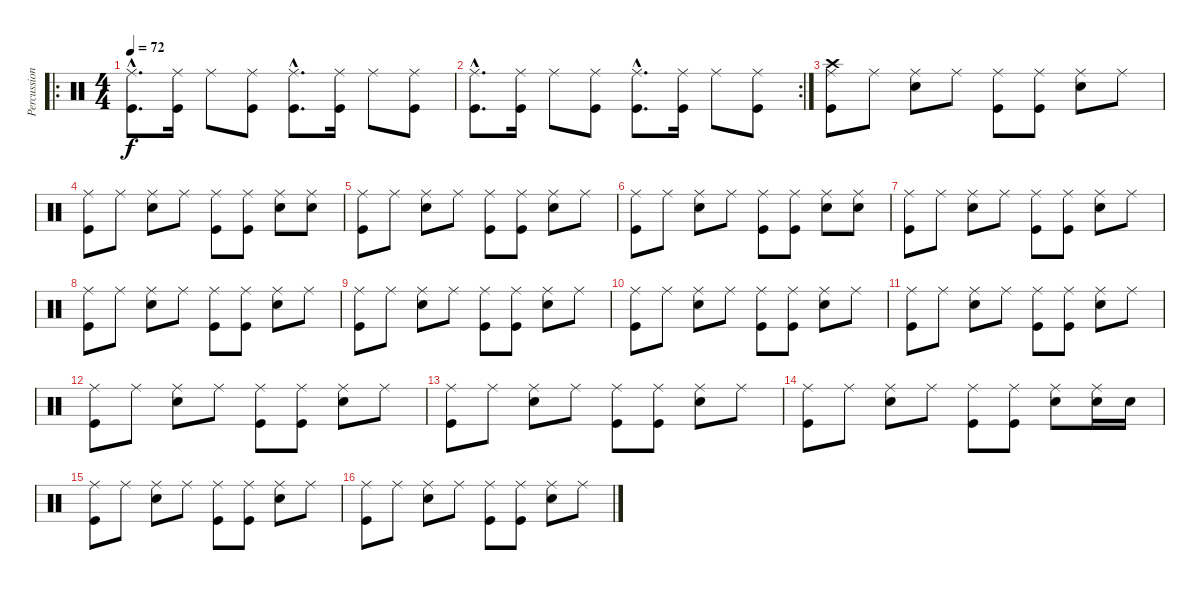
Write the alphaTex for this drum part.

\track ("Percussions" "Percussion") {instrument percussion}
\staff {score}
\articulation defaults
\ro
\ts (4 4)
\tempo 72
\clef neutral
\ks c
("Ride (middle)"{hac} "Kick (hit)"{hac}).8{d dy f} ("Ride (middle)" "Kick (hit)").16 "Ride (middle)".8 ("Ride (middle)" "Kick (hit)").8 ("Ride (middle)"{hac} "Kick (hit)"{hac}).8{d} ("Ride (middle)" "Kick (hit)").16 "Ride (middle)".8 ("Ride (middle)" "Kick (hit)").8 |
\rc 2
("Ride (middle)"{hac} "Kick (hit)"{hac}).8{d} ("Ride (middle)" "Kick (hit)").16 "Ride (middle)".8 ("Ride (middle)" "Kick (hit)").8 ("Ride (middle)"{hac} "Kick (hit)"{hac}).8{d} ("Ride (middle)" "Kick (hit)").16 "Ride (middle)".8 ("Ride (middle)" "Kick (hit)").8 |
("Crash high (hit)" "Ride (middle)" "Kick (hit)").8 "Ride (middle)".8 ("Ride (middle)" "Snare (hit) 2").8 "Ride (middle)".8 ("Ride (middle)" "Kick (hit)").8 ("Ride (middle)" "Kick (hit)").8 ("Ride (middle)" "Snare (hit) 2").8 "Ride (middle)".8 |
("Ride (middle)" "Kick (hit)").8 "Ride (middle)".8 ("Ride (middle)" "Snare (hit) 2").8 "Ride (middle)".8 ("Ride (middle)" "Kick (hit)").8 ("Ride (middle)" "Kick (hit)").8 ("Ride (middle)" "Snare (hit) 2").8 ("Ride (middle)" "Snare (hit) 2").8 |
("Ride (middle)" "Kick (hit)").8 "Ride (middle)".8 ("Ride (middle)" "Snare (hit) 2").8 "Ride (middle)".8 ("Ride (middle)" "Kick (hit)").8 ("Ride (middle)" "Kick (hit)").8 ("Ride (middle)" "Snare (hit) 2").8 "Ride (middle)".8 |
("Ride (middle)" "Kick (hit)").8 "Ride (middle)".8 ("Ride (middle)" "Snare (hit) 2").8 "Ride (middle)".8 ("Ride (middle)" "Kick (hit)").8 ("Ride (middle)" "Kick (hit)").8 ("Ride (middle)" "Snare (hit) 2").8 ("Ride (middle)" "Snare (hit) 2").8 |
("Ride (middle)" "Kick (hit)").8 "Ride (middle)".8 ("Ride (middle)" "Snare (hit) 2").8 "Ride (middle)".8 ("Ride (middle)" "Kick (hit)").8 ("Ride (middle)" "Kick (hit)").8 ("Ride (middle)" "Snare (hit) 2").8 "Ride (middle)".8 |
("Ride (middle)" "Kick (hit)").8 "Ride (middle)".8 ("Ride (middle)" "Snare (hit) 2").8 "Ride (middle)".8 ("Ride (middle)" "Kick (hit)").8 ("Ride (middle)" "Kick (hit)").8 ("Ride (middle)" "Snare (hit) 2").8 "Ride (middle)".8 |
("Ride (middle)" "Kick (hit)").8 "Ride (middle)".8 ("Ride (middle)" "Snare (hit) 2").8 "Ride (middle)".8 ("Ride (middle)" "Kick (hit)").8 ("Ride (middle)" "Kick (hit)").8 ("Ride (middle)" "Snare (hit) 2").8 "Ride (middle)".8 |
("Ride (middle)" "Kick (hit)").8 "Ride (middle)".8 ("Ride (middle)" "Snare (hit) 2").8 "Ride (middle)".8 ("Ride (middle)" "Kick (hit)").8 ("Ride (middle)" "Kick (hit)").8 ("Ride (middle)" "Snare (hit) 2").8 "Ride (middle)".8 |
("Ride (middle)" "Kick (hit)").8 "Ride (middle)".8 ("Ride (middle)" "Snare (hit) 2").8 "Ride (middle)".8 ("Ride (middle)" "Kick (hit)").8 ("Ride (middle)" "Kick (hit)").8 ("Ride (middle)" "Snare (hit) 2").8 "Ride (middle)".8 |
("Ride (middle)" "Kick (hit)").8 "Ride (middle)".8 ("Ride (middle)" "Snare (hit) 2").8 "Ride (middle)".8 ("Ride (middle)" "Kick (hit)").8 ("Ride (middle)" "Kick (hit)").8 ("Ride (middle)" "Snare (hit) 2").8 "Ride (middle)".8 |
("Ride (middle)" "Kick (hit)").8 "Ride (middle)".8 ("Ride (middle)" "Snare (hit) 2").8 "Ride (middle)".8 ("Ride (middle)" "Kick (hit)").8 ("Ride (middle)" "Kick (hit)").8 ("Ride (middle)" "Snare (hit) 2").8 "Ride (middle)".8 |
("Ride (middle)" "Kick (hit)").8 "Ride (middle)".8 ("Ride (middle)" "Snare (hit) 2").8 "Ride (middle)".8 ("Ride (middle)" "Kick (hit)").8 ("Ride (middle)" "Kick (hit)").8 ("Ride (middle)" "Snare (hit) 2").8 ("Ride (middle)" "Snare (hit) 2").16 "Snare (hit) 2".16 |
("Ride (middle)" "Kick (hit)").8 "Ride (middle)".8 ("Ride (middle)" "Snare (hit) 2").8 "Ride (middle)".8 ("Ride (middle)" "Kick (hit)").8 ("Ride (middle)" "Kick (hit)").8 ("Ride (middle)" "Snare (hit) 2").8 "Ride (middle)".8 |
("Ride (middle)" "Kick (hit)").8 "Ride (middle)".8 ("Ride (middle)" "Snare (hit) 2").8 "Ride (middle)".8 ("Ride (middle)" "Kick (hit)").8 ("Ride (middle)" "Kick (hit)").8 ("Ride (middle)" "Snare (hit) 2").8 "Ride (middle)".8
